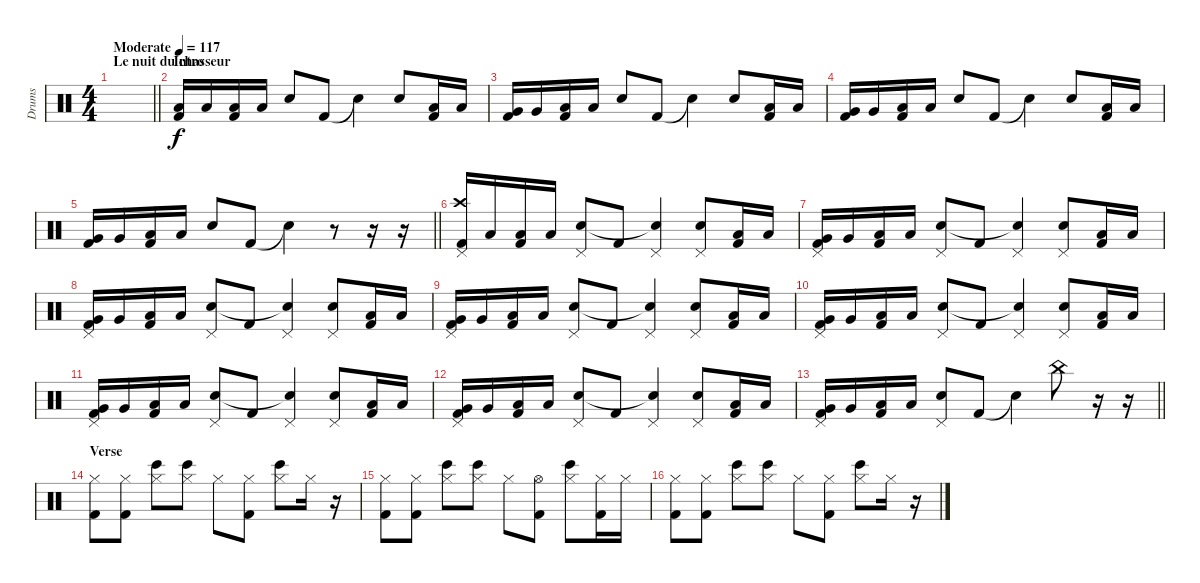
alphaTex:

\track ("Drums" "Drums") {instrument percussion}
\staff {score}
\articulation defaults
\ts (4 4)
\section ("" "Le nuit du chasseur")
\tempo (117 "Moderate")
\clef neutral
\barLineRight lightlight
\ks c
|
\section ("" "Intro")
("Low Tom (hit)" "Kick (hit) 2").16 "Low Tom (hit)".16 ("Low Floor Tom (hit)" "Kick (hit) 2").16 "Low Floor Tom (hit)".16 "Snare (hit) 2".8 "Kick (hit) 2".8 "Snare (hit)"{t}.4 "Snare (hit) 2".8 ("Low Tom (hit)" "Kick (hit) 2").16 "Low Tom (hit)".16 |
("Very Low Tom (hit)" "Kick (hit) 2").16 "Very Low Tom (hit)".16 ("Low Floor Tom (hit)" "Kick (hit) 2").16 "Low Floor Tom (hit)".16 "Snare (hit) 2".8 "Kick (hit) 2".8 "Snare (hit)"{t}.4 "Snare (hit) 2".8 ("Low Tom (hit)" "Kick (hit) 2").16 "Low Tom (hit)".16 |
("Very Low Tom (hit)" "Kick (hit) 2").16 "Very Low Tom (hit)".16 ("Low Floor Tom (hit)" "Kick (hit) 2").16 "Low Floor Tom (hit)".16 "Snare (hit) 2".8 "Kick (hit) 2".8 "Snare (hit)"{t}.4 "Snare (hit) 2".8 ("Low Tom (hit)" "Kick (hit) 2").16 "Low Tom (hit)".16 |
\barLineRight lightlight
("Very Low Tom (hit)" "Kick (hit) 2").16 "Very Low Tom (hit)".16 ("Low Floor Tom (hit)" "Kick (hit) 2").16 "Low Floor Tom (hit)".16 "Snare (hit) 2".8 "Kick (hit) 2".8 "Snare (hit)"{t}.4 r.8 r.16 r.16 |
("Crash high (hit)" "Pedal Hi-Hat (hit)" "Kick (hit) 2").16 "Low Tom (hit)".16 ("Low Floor Tom (hit)" "Kick (hit) 2").16 "Low Floor Tom (hit)".16 ("Pedal Hi-Hat (hit)" "Snare (hit) 2").8 "Kick (hit) 2".8 ("Pedal Hi-Hat (hit)" "Snare (hit)"{t}).4 ("Pedal Hi-Hat (hit)" "Snare (hit) 2").8 ("Low Tom (hit)" "Kick (hit) 2").16 "Low Tom (hit)".16 |
("Pedal Hi-Hat (hit)" "Very Low Tom (hit)" "Kick (hit) 2").16 "Very Low Tom (hit)".16 ("Low Floor Tom (hit)" "Kick (hit) 2").16 "Low Floor Tom (hit)".16 ("Pedal Hi-Hat (hit)" "Snare (hit) 2").8 "Kick (hit) 2".8 ("Pedal Hi-Hat (hit)" "Snare (hit)"{t}).4 ("Pedal Hi-Hat (hit)" "Snare (hit) 2").8 ("Low Tom (hit)" "Kick (hit) 2").16 "Low Tom (hit)".16 |
("Pedal Hi-Hat (hit)" "Very Low Tom (hit)" "Kick (hit) 2").16 "Very Low Tom (hit)".16 ("Low Floor Tom (hit)" "Kick (hit) 2").16 "Low Floor Tom (hit)".16 ("Pedal Hi-Hat (hit)" "Snare (hit) 2").8 "Kick (hit) 2".8 ("Pedal Hi-Hat (hit)" "Snare (hit)"{t}).4 ("Pedal Hi-Hat (hit)" "Snare (hit) 2").8 ("Low Tom (hit)" "Kick (hit) 2").16 "Low Tom (hit)".16 |
("Pedal Hi-Hat (hit)" "Very Low Tom (hit)" "Kick (hit) 2").16 "Very Low Tom (hit)".16 ("Low Floor Tom (hit)" "Kick (hit) 2").16 "Low Floor Tom (hit)".16 ("Pedal Hi-Hat (hit)" "Snare (hit) 2").8 "Kick (hit) 2".8 ("Pedal Hi-Hat (hit)" "Snare (hit)"{t}).4 ("Pedal Hi-Hat (hit)" "Snare (hit) 2").8 ("Low Tom (hit)" "Kick (hit) 2").16 "Low Tom (hit)".16 |
("Pedal Hi-Hat (hit)" "Very Low Tom (hit)" "Kick (hit) 2").16 "Very Low Tom (hit)".16 ("Low Floor Tom (hit)" "Kick (hit) 2").16 "Low Floor Tom (hit)".16 ("Pedal Hi-Hat (hit)" "Snare (hit) 2").8 "Kick (hit) 2".8 ("Pedal Hi-Hat (hit)" "Snare (hit)"{t}).4 ("Pedal Hi-Hat (hit)" "Snare (hit) 2").8 ("Low Tom (hit)" "Kick (hit) 2").16 "Low Tom (hit)".16 |
("Pedal Hi-Hat (hit)" "Very Low Tom (hit)" "Kick (hit) 2").16 "Very Low Tom (hit)".16 ("Low Floor Tom (hit)" "Kick (hit) 2").16 "Low Floor Tom (hit)".16 ("Pedal Hi-Hat (hit)" "Snare (hit) 2").8 "Kick (hit) 2".8 ("Pedal Hi-Hat (hit)" "Snare (hit)"{t}).4 ("Pedal Hi-Hat (hit)" "Snare (hit) 2").8 ("Low Tom (hit)" "Kick (hit) 2").16 "Low Tom (hit)".16 |
("Pedal Hi-Hat (hit)" "Very Low Tom (hit)" "Kick (hit) 2").16 "Very Low Tom (hit)".16 ("Low Floor Tom (hit)" "Kick (hit) 2").16 "Low Floor Tom (hit)".16 ("Pedal Hi-Hat (hit)" "Snare (hit) 2").8 "Kick (hit) 2".8 ("Pedal Hi-Hat (hit)" "Snare (hit)"{t}).4 ("Pedal Hi-Hat (hit)" "Snare (hit) 2").8 ("Low Tom (hit)" "Kick (hit) 2").16 "Low Tom (hit)".16 |
\barLineRight lightlight
("Pedal Hi-Hat (hit)" "Very Low Tom (hit)" "Kick (hit) 2").16 "Very Low Tom (hit)".16 ("Low Floor Tom (hit)" "Kick (hit) 2").16 "Low Floor Tom (hit)".16 ("Pedal Hi-Hat (hit)" "Snare (hit) 2").8 "Kick (hit) 2".8 "Snare (hit)"{t}.4 "China (hit)".8 r.16 r.16 |
\section ("" "Verse")
("Hi-Hat (closed)" "Kick (hit) 2").8 ("Hi-Hat (closed)" "Kick (hit) 2").8 ("Hi-Hat (closed)" "Bongo High (hit)").8 ("Hi-Hat (closed)" "Bongo High (hit)").8 "Hi-Hat (closed)".8 ("Hi-Hat (closed)" "Kick (hit) 2").8 ("Hi-Hat (closed)" "Bongo High (hit)").8 "Hi-Hat (closed)".16 r.16 |
("Hi-Hat (closed)" "Kick (hit) 2").8 ("Hi-Hat (closed)" "Kick (hit) 2").8 ("Hi-Hat (closed)" "Bongo High (hit)").8 ("Hi-Hat (closed)" "Bongo High (hit)").8 "Hi-Hat (closed)".8 ("Hi-Hat (open)" "Kick (hit) 2").8 ("Hi-Hat (closed)" "Bongo High (hit)").8 ("Hi-Hat (closed)" "Kick (hit) 2").16 "Hi-Hat (closed)".16 |
("Hi-Hat (closed)" "Kick (hit) 2").8 ("Hi-Hat (closed)" "Kick (hit) 2").8 ("Hi-Hat (closed)" "Bongo High (hit)").8 ("Hi-Hat (closed)" "Bongo High (hit)").8 "Hi-Hat (closed)".8 ("Hi-Hat (closed)" "Kick (hit) 2").8 ("Hi-Hat (closed)" "Bongo High (hit)").8 "Hi-Hat (closed)".16 r.16
